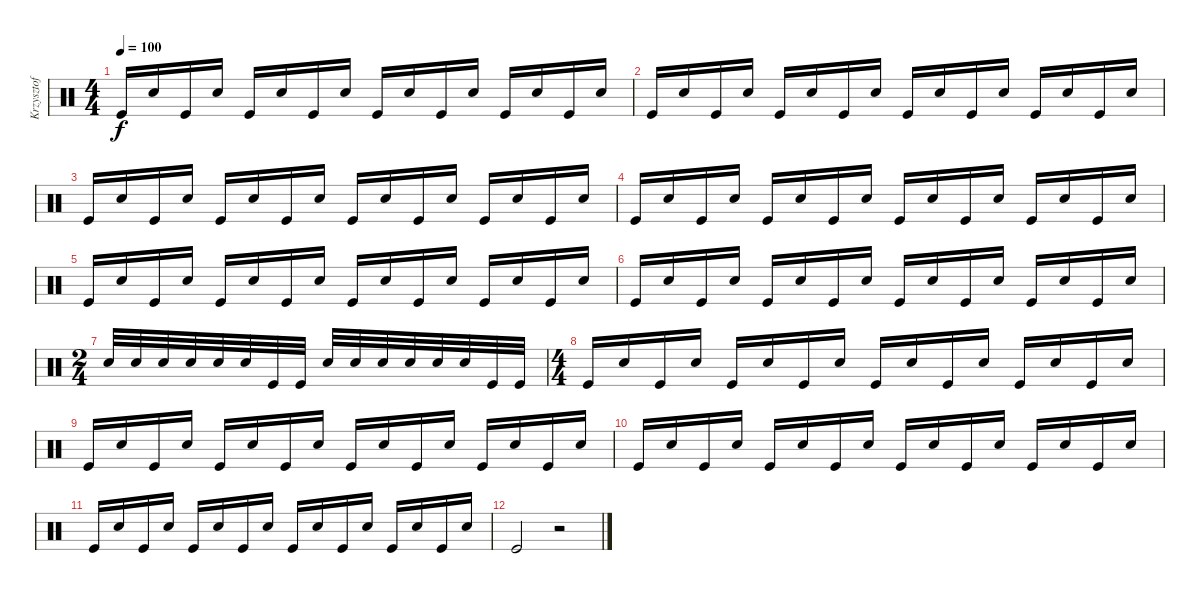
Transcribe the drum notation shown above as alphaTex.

\track ("Krzysztof Grela" "Krzysztof ") {instrument percussion}
\staff {score}
\articulation defaults
\ts (4 4)
\tempo 100
\clef neutral
\ks c "Kick (hit)".16{dy f} "Snare (hit) 2".16 "Kick (hit)".16 "Snare (hit) 2".16 "Kick (hit)".16 "Snare (hit) 2".16 "Kick (hit)".16 "Snare (hit) 2".16 "Kick (hit)".16 "Snare (hit) 2".16 "Kick (hit)".16 "Snare (hit) 2".16 "Kick (hit)".16 "Snare (hit) 2".16 "Kick (hit)".16 "Snare (hit) 2".16
|
"Kick (hit)".16 "Snare (hit) 2".16 "Kick (hit)".16 "Snare (hit) 2".16 "Kick (hit)".16 "Snare (hit) 2".16 "Kick (hit)".16 "Snare (hit) 2".16 "Kick (hit)".16 "Snare (hit) 2".16 "Kick (hit)".16 "Snare (hit) 2".16 "Kick (hit)".16 "Snare (hit) 2".16 "Kick (hit)".16 "Snare (hit) 2".16 |
"Kick (hit)".16 "Snare (hit) 2".16 "Kick (hit)".16 "Snare (hit) 2".16 "Kick (hit)".16 "Snare (hit) 2".16 "Kick (hit)".16 "Snare (hit) 2".16 "Kick (hit)".16 "Snare (hit) 2".16 "Kick (hit)".16 "Snare (hit) 2".16 "Kick (hit)".16 "Snare (hit) 2".16 "Kick (hit)".16 "Snare (hit) 2".16 |
"Kick (hit)".16 "Snare (hit) 2".16 "Kick (hit)".16 "Snare (hit) 2".16 "Kick (hit)".16 "Snare (hit) 2".16 "Kick (hit)".16 "Snare (hit) 2".16 "Kick (hit)".16 "Snare (hit) 2".16 "Kick (hit)".16 "Snare (hit) 2".16 "Kick (hit)".16 "Snare (hit) 2".16 "Kick (hit)".16 "Snare (hit) 2".16 |
"Kick (hit)".16 "Snare (hit) 2".16 "Kick (hit)".16 "Snare (hit) 2".16 "Kick (hit)".16 "Snare (hit) 2".16 "Kick (hit)".16 "Snare (hit) 2".16 "Kick (hit)".16 "Snare (hit) 2".16 "Kick (hit)".16 "Snare (hit) 2".16 "Kick (hit)".16 "Snare (hit) 2".16 "Kick (hit)".16 "Snare (hit) 2".16 |
"Kick (hit)".16 "Snare (hit) 2".16 "Kick (hit)".16 "Snare (hit) 2".16 "Kick (hit)".16 "Snare (hit) 2".16 "Kick (hit)".16 "Snare (hit) 2".16 "Kick (hit)".16 "Snare (hit) 2".16 "Kick (hit)".16 "Snare (hit) 2".16 "Kick (hit)".16 "Snare (hit) 2".16 "Kick (hit)".16 "Snare (hit) 2".16 |
\ts (2 4)
"Snare (hit) 2".32 "Snare (hit) 2".32 "Snare (hit) 2".32 "Snare (hit) 2".32 "Snare (hit) 2".32 "Snare (hit) 2".32 "Kick (hit)".32 "Kick (hit)".32 "Snare (hit) 2".32 "Snare (hit) 2".32 "Snare (hit) 2".32 "Snare (hit) 2".32 "Snare (hit) 2".32 "Snare (hit) 2".32 "Kick (hit)".32 "Kick (hit)".32 |
\ts (4 4)
"Kick (hit)".16 "Snare (hit) 2".16 "Kick (hit)".16 "Snare (hit) 2".16 "Kick (hit)".16 "Snare (hit) 2".16 "Kick (hit)".16 "Snare (hit) 2".16 "Kick (hit)".16 "Snare (hit) 2".16 "Kick (hit)".16 "Snare (hit) 2".16 "Kick (hit)".16 "Snare (hit) 2".16 "Kick (hit)".16 "Snare (hit) 2".16 |
"Kick (hit)".16 "Snare (hit) 2".16 "Kick (hit)".16 "Snare (hit) 2".16 "Kick (hit)".16 "Snare (hit) 2".16 "Kick (hit)".16 "Snare (hit) 2".16 "Kick (hit)".16 "Snare (hit) 2".16 "Kick (hit)".16 "Snare (hit) 2".16 "Kick (hit)".16 "Snare (hit) 2".16 "Kick (hit)".16 "Snare (hit) 2".16 |
"Kick (hit)".16 "Snare (hit) 2".16 "Kick (hit)".16 "Snare (hit) 2".16 "Kick (hit)".16 "Snare (hit) 2".16 "Kick (hit)".16 "Snare (hit) 2".16 "Kick (hit)".16 "Snare (hit) 2".16 "Kick (hit)".16 "Snare (hit) 2".16 "Kick (hit)".16 "Snare (hit) 2".16 "Kick (hit)".16 "Snare (hit) 2".16 |
"Kick (hit)".16 "Snare (hit) 2".16 "Kick (hit)".16 "Snare (hit) 2".16 "Kick (hit)".16 "Snare (hit) 2".16 "Kick (hit)".16 "Snare (hit) 2".16 "Kick (hit)".16 "Snare (hit) 2".16 "Kick (hit)".16 "Snare (hit) 2".16 "Kick (hit)".16 "Snare (hit) 2".16 "Kick (hit)".16 "Snare (hit) 2".16 |
"Kick (hit)".2 r.2
